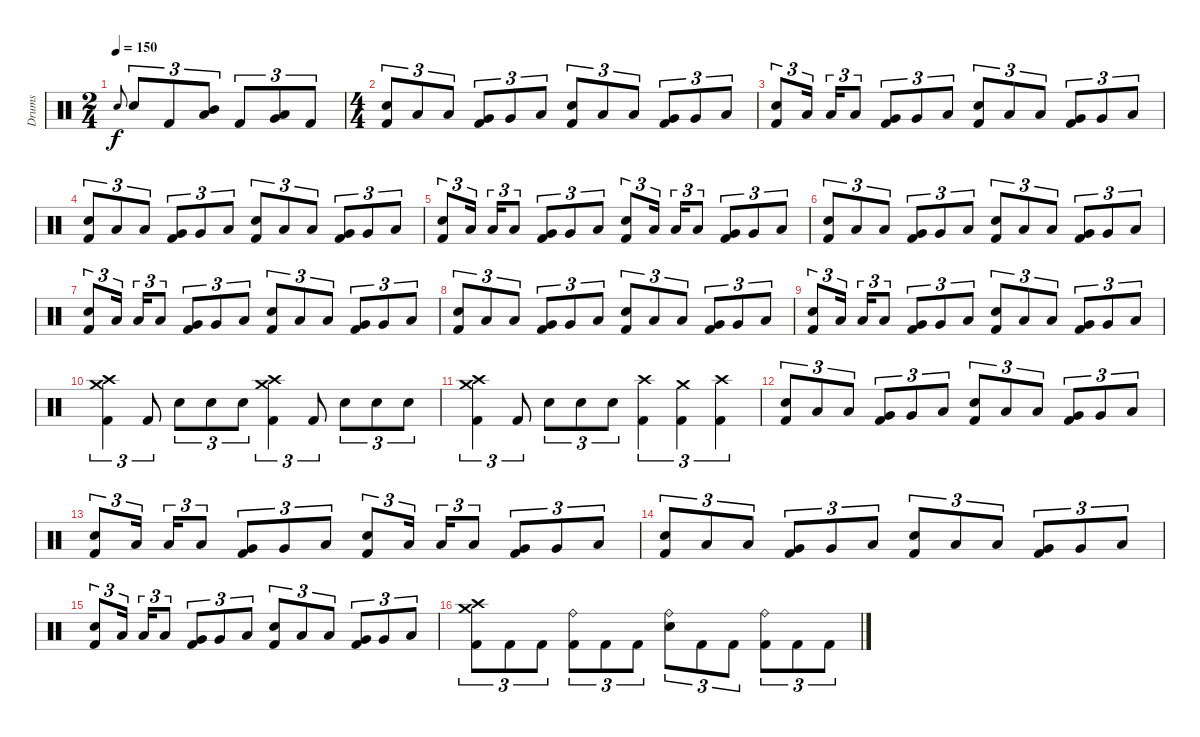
\track ("Drums" "Drums") {instrument percussion}
\staff {score}
\articulation defaults
\ts (2 4)
\tempo 150
\clef neutral
\ks c "Electric Snare (hit)".8{gr onbeat dy f} "Electric Snare (hit)".8{tu (3 2)} "Kick (hit) 2".8{tu (3 2)}
("Mid Tom (hit)" "Low Tom (hit)").8{tu (3 2)} "Kick (hit) 2".8{tu (3 2)} ("Low Tom (hit)" "Very Low Tom (hit)").8{tu (3 2)} "Kick (hit) 2".8{tu (3 2)} |
\ts (4 4)
("Electric Snare (hit)" "Kick (hit) 2").8{tu (3 2)} "Low Tom (hit)".8{tu (3 2)} "Low Tom (hit)".8{tu (3 2)} ("Very Low Tom (hit)" "Kick (hit) 2").8{tu (3 2)} "Very Low Tom (hit)".8{tu (3 2)} "Low Floor Tom (hit)".8{tu (3 2)} ("Electric Snare (hit)" "Kick (hit) 2").8{tu (3 2)} "Low Tom (hit)".8{tu (3 2)} "Low Tom (hit)".8{tu (3 2)} ("Very Low Tom (hit)" "Kick (hit) 2").8{tu (3 2)} "Very Low Tom (hit)".8{tu (3 2)} "Low Floor Tom (hit)".8{tu (3 2)} |
("Electric Snare (hit)" "Kick (hit) 2").8{tu (3 2)} "Low Tom (hit)".16{tu (3 2) beam splitsecondary} "Low Tom (hit)".16{tu (3 2)} "Low Tom (hit)".8{tu (3 2)} ("Very Low Tom (hit)" "Kick (hit) 2").8{tu (3 2)} "Very Low Tom (hit)".8{tu (3 2)} "Low Floor Tom (hit)".8{tu (3 2)} ("Electric Snare (hit)" "Kick (hit) 2").8{tu (3 2)} "Low Tom (hit)".8{tu (3 2)} "Low Tom (hit)".8{tu (3 2)} ("Very Low Tom (hit)" "Kick (hit) 2").8{tu (3 2)} "Very Low Tom (hit)".8{tu (3 2)} "Low Floor Tom (hit)".8{tu (3 2)} |
("Electric Snare (hit)" "Kick (hit) 2").8{tu (3 2)} "Low Tom (hit)".8{tu (3 2)} "Low Tom (hit)".8{tu (3 2)} ("Very Low Tom (hit)" "Kick (hit) 2").8{tu (3 2)} "Very Low Tom (hit)".8{tu (3 2)} "Low Floor Tom (hit)".8{tu (3 2)} ("Electric Snare (hit)" "Kick (hit) 2").8{tu (3 2)} "Low Tom (hit)".8{tu (3 2)} "Low Tom (hit)".8{tu (3 2)} ("Very Low Tom (hit)" "Kick (hit) 2").8{tu (3 2)} "Very Low Tom (hit)".8{tu (3 2)} "Low Floor Tom (hit)".8{tu (3 2)} |
("Electric Snare (hit)" "Kick (hit) 2").8{tu (3 2)} "Low Tom (hit)".16{tu (3 2) beam splitsecondary} "Low Tom (hit)".16{tu (3 2)} "Low Tom (hit)".8{tu (3 2)} ("Very Low Tom (hit)" "Kick (hit) 2").8{tu (3 2)} "Very Low Tom (hit)".8{tu (3 2)} "Low Floor Tom (hit)".8{tu (3 2)} ("Electric Snare (hit)" "Kick (hit) 2").8{tu (3 2)} "Low Tom (hit)".16{tu (3 2) beam splitsecondary} "Low Tom (hit)".16{tu (3 2)} "Low Tom (hit)".8{tu (3 2)} ("Very Low Tom (hit)" "Kick (hit) 2").8{tu (3 2)} "Very Low Tom (hit)".8{tu (3 2)} "Low Floor Tom (hit)".8{tu (3 2)} |
("Electric Snare (hit)" "Kick (hit) 2").8{tu (3 2)} "Low Tom (hit)".8{tu (3 2)} "Low Tom (hit)".8{tu (3 2)} ("Very Low Tom (hit)" "Kick (hit) 2").8{tu (3 2)} "Very Low Tom (hit)".8{tu (3 2)} "Low Floor Tom (hit)".8{tu (3 2)} ("Electric Snare (hit)" "Kick (hit) 2").8{tu (3 2)} "Low Tom (hit)".8{tu (3 2)} "Low Tom (hit)".8{tu (3 2)} ("Very Low Tom (hit)" "Kick (hit) 2").8{tu (3 2)} "Very Low Tom (hit)".8{tu (3 2)} "Low Floor Tom (hit)".8{tu (3 2)} |
("Electric Snare (hit)" "Kick (hit) 2").8{tu (3 2)} "Low Tom (hit)".16{tu (3 2) beam splitsecondary} "Low Tom (hit)".16{tu (3 2)} "Low Tom (hit)".8{tu (3 2)} ("Very Low Tom (hit)" "Kick (hit) 2").8{tu (3 2)} "Very Low Tom (hit)".8{tu (3 2)} "Low Floor Tom (hit)".8{tu (3 2)} ("Electric Snare (hit)" "Kick (hit) 2").8{tu (3 2)} "Low Tom (hit)".8{tu (3 2)} "Low Tom (hit)".8{tu (3 2)} ("Very Low Tom (hit)" "Kick (hit) 2").8{tu (3 2)} "Very Low Tom (hit)".8{tu (3 2)} "Low Floor Tom (hit)".8{tu (3 2)} |
("Electric Snare (hit)" "Kick (hit) 2").8{tu (3 2)} "Low Tom (hit)".8{tu (3 2)} "Low Tom (hit)".8{tu (3 2)} ("Very Low Tom (hit)" "Kick (hit) 2").8{tu (3 2)} "Very Low Tom (hit)".8{tu (3 2)} "Low Floor Tom (hit)".8{tu (3 2)} ("Electric Snare (hit)" "Kick (hit) 2").8{tu (3 2)} "Low Tom (hit)".8{tu (3 2)} "Low Tom (hit)".8{tu (3 2)} ("Very Low Tom (hit)" "Kick (hit) 2").8{tu (3 2)} "Very Low Tom (hit)".8{tu (3 2)} "Low Floor Tom (hit)".8{tu (3 2)} |
("Electric Snare (hit)" "Kick (hit) 2").8{tu (3 2)} "Low Tom (hit)".16{tu (3 2) beam splitsecondary} "Low Tom (hit)".16{tu (3 2)} "Low Tom (hit)".8{tu (3 2)} ("Very Low Tom (hit)" "Kick (hit) 2").8{tu (3 2)} "Very Low Tom (hit)".8{tu (3 2)} "Low Floor Tom (hit)".8{tu (3 2)} ("Electric Snare (hit)" "Kick (hit) 2").8{tu (3 2)} "Low Tom (hit)".8{tu (3 2)} "Low Tom (hit)".8{tu (3 2)} ("Very Low Tom (hit)" "Kick (hit) 2").8{tu (3 2)} "Very Low Tom (hit)".8{tu (3 2)} "Low Floor Tom (hit)".8{tu (3 2)} |
("Crash medium (hit)" "Crash high (hit)" "Kick (hit) 2").4{tu (3 2)} "Kick (hit) 2".8{tu (3 2)} "Electric Snare (hit)".8{tu (3 2)} "Electric Snare (hit)".8{tu (3 2)} "Electric Snare (hit)".8{tu (3 2)} ("Crash medium (hit)" "Crash high (hit)" "Kick (hit) 2").4{tu (3 2)} "Kick (hit) 2".8{tu (3 2)} "Electric Snare (hit)".8{tu (3 2)} "Electric Snare (hit)".8{tu (3 2)} "Electric Snare (hit)".8{tu (3 2)} |
("Crash medium (hit)" "Crash high (hit)" "Kick (hit) 2").4{tu (3 2)} "Kick (hit) 2".8{tu (3 2)} "Electric Snare (hit)".8{tu (3 2)} "Electric Snare (hit)".8{tu (3 2)} "Electric Snare (hit)".8{tu (3 2)} ("Crash high (hit)" "Kick (hit) 2").4{tu (3 2)} ("Crash medium (hit)" "Kick (hit) 2").4{tu (3 2)} ("Crash high (hit)" "Kick (hit) 2").4{tu (3 2)} |
("Electric Snare (hit)" "Kick (hit) 2").8{tu (3 2)} "Low Tom (hit)".8{tu (3 2)} "Low Tom (hit)".8{tu (3 2)} ("Very Low Tom (hit)" "Kick (hit) 2").8{tu (3 2)} "Very Low Tom (hit)".8{tu (3 2)} "Low Floor Tom (hit)".8{tu (3 2)} ("Electric Snare (hit)" "Kick (hit) 2").8{tu (3 2)} "Low Tom (hit)".8{tu (3 2)} "Low Tom (hit)".8{tu (3 2)} ("Very Low Tom (hit)" "Kick (hit) 2").8{tu (3 2)} "Very Low Tom (hit)".8{tu (3 2)} "Low Floor Tom (hit)".8{tu (3 2)} |
("Electric Snare (hit)" "Kick (hit) 2").8{tu (3 2)} "Low Tom (hit)".16{tu (3 2) beam splitsecondary} "Low Tom (hit)".16{tu (3 2)} "Low Tom (hit)".8{tu (3 2)} ("Very Low Tom (hit)" "Kick (hit) 2").8{tu (3 2)} "Very Low Tom (hit)".8{tu (3 2)} "Low Floor Tom (hit)".8{tu (3 2)} ("Electric Snare (hit)" "Kick (hit) 2").8{tu (3 2)} "Low Tom (hit)".16{tu (3 2) beam splitsecondary} "Low Tom (hit)".16{tu (3 2)} "Low Tom (hit)".8{tu (3 2)} ("Very Low Tom (hit)" "Kick (hit) 2").8{tu (3 2)} "Very Low Tom (hit)".8{tu (3 2)} "Low Floor Tom (hit)".8{tu (3 2)} |
("Electric Snare (hit)" "Kick (hit) 2").8{tu (3 2)} "Low Tom (hit)".8{tu (3 2)} "Low Tom (hit)".8{tu (3 2)} ("Very Low Tom (hit)" "Kick (hit) 2").8{tu (3 2)} "Very Low Tom (hit)".8{tu (3 2)} "Low Floor Tom (hit)".8{tu (3 2)} ("Electric Snare (hit)" "Kick (hit) 2").8{tu (3 2)} "Low Tom (hit)".8{tu (3 2)} "Low Tom (hit)".8{tu (3 2)} ("Very Low Tom (hit)" "Kick (hit) 2").8{tu (3 2)} "Very Low Tom (hit)".8{tu (3 2)} "Low Floor Tom (hit)".8{tu (3 2)} |
("Electric Snare (hit)" "Kick (hit) 2").8{tu (3 2)} "Low Tom (hit)".16{tu (3 2) beam splitsecondary} "Low Tom (hit)".16{tu (3 2)} "Low Tom (hit)".8{tu (3 2)} ("Very Low Tom (hit)" "Kick (hit) 2").8{tu (3 2)} "Very Low Tom (hit)".8{tu (3 2)} "Low Floor Tom (hit)".8{tu (3 2)} ("Electric Snare (hit)" "Kick (hit) 2").8{tu (3 2)} "Low Tom (hit)".8{tu (3 2)} "Low Tom (hit)".8{tu (3 2)} ("Very Low Tom (hit)" "Kick (hit) 2").8{tu (3 2)} "Very Low Tom (hit)".8{tu (3 2)} "Low Floor Tom (hit)".8{tu (3 2)} |
("Crash high (hit)" "Crash medium (hit)" "Kick (hit) 2").8{tu (3 2)} "Kick (hit) 2".8{tu (3 2)} "Kick (hit) 2".8{tu (3 2)} ("Ride (bell)" "Kick (hit) 2").8{tu (3 2)} "Kick (hit) 2".8{tu (3 2)} "Kick (hit) 2".8{tu (3 2)} ("Ride (bell)" "Electric Snare (hit)").8{tu (3 2)} "Kick (hit) 2".8{tu (3 2)} "Kick (hit) 2".8{tu (3 2)} ("Ride (bell)" "Kick (hit) 2").8{tu (3 2)} "Kick (hit) 2".8{tu (3 2)} "Kick (hit) 2".8{tu (3 2)}
